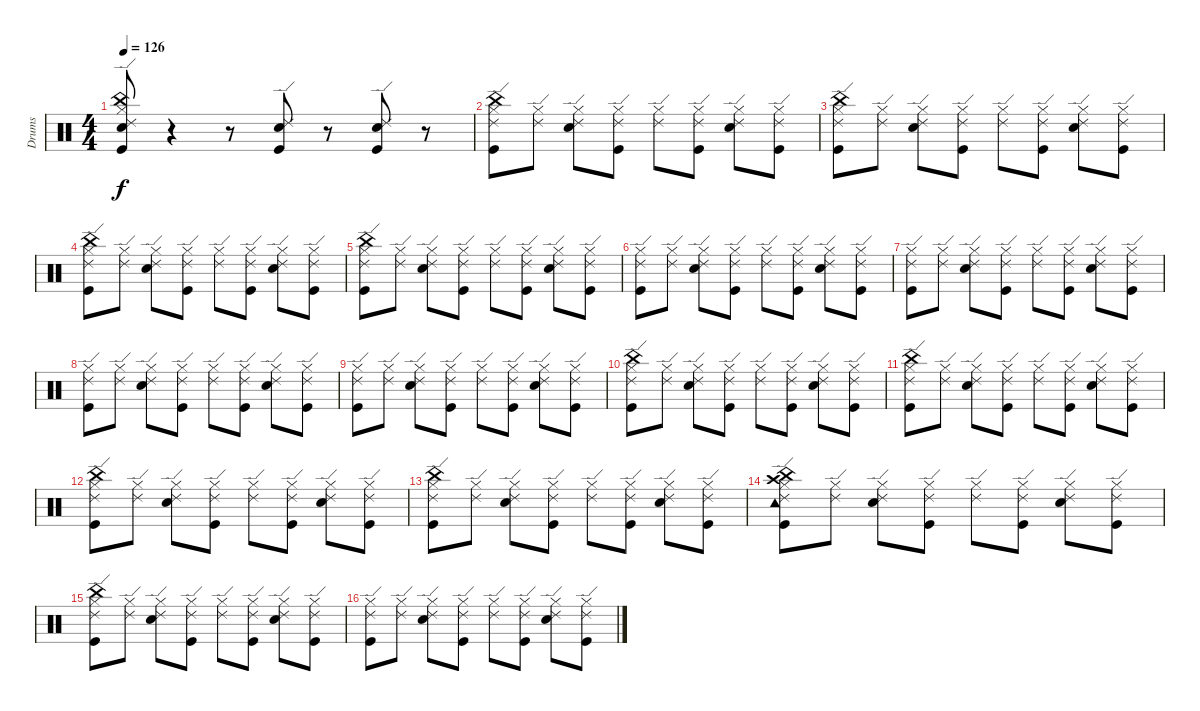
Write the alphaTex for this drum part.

\track ("Drums" "Drums") {instrument percussion}
\staff {score}
\articulation defaults
\ts (4 4)
\tempo 126
\clef neutral
\ks c
("Electric Snare (hit)" "Hi-Hat (closed)" "China (hit)" "Ride (edge) 2" "Kick (hit)").8{dy f} r.4 r.8 ("Ride (edge) 2" "Electric Snare (hit)" "Kick (hit)").8 r.8 ("Ride (edge) 2" "Kick (hit)" "Electric Snare (hit)").8 r.8 |
("Hi-Hat (closed)" "China (hit)" "Ride (edge) 2" "Kick (hit)").8 ("Hi-Hat (closed)" "Ride (edge) 2").8 ("Hi-Hat (closed)" "Ride (edge) 2" "Electric Snare (hit)").8 ("Hi-Hat (closed)" "Ride (edge) 2" "Kick (hit)").8 ("Hi-Hat (closed)" "Ride (edge) 2").8 ("Hi-Hat (closed)" "Ride (edge) 2" "Kick (hit)").8 ("Hi-Hat (closed)" "Ride (edge) 2" "Electric Snare (hit)").8 ("Hi-Hat (closed)" "Ride (edge) 2" "Kick (hit)").8 |
("Hi-Hat (closed)" "China (hit)" "Ride (edge) 2" "Kick (hit)").8 ("Hi-Hat (closed)" "Ride (edge) 2").8 ("Hi-Hat (closed)" "Ride (edge) 2" "Electric Snare (hit)").8 ("Hi-Hat (closed)" "Ride (edge) 2" "Kick (hit)").8 ("Hi-Hat (closed)" "Ride (edge) 2").8 ("Hi-Hat (closed)" "Ride (edge) 2" "Kick (hit)").8 ("Hi-Hat (closed)" "Ride (edge) 2" "Electric Snare (hit)").8 ("Hi-Hat (closed)" "Ride (edge) 2" "Kick (hit)").8 |
("Hi-Hat (closed)" "China (hit)" "Ride (edge) 2" "Kick (hit)").8 ("Hi-Hat (closed)" "Ride (edge) 2").8 ("Hi-Hat (closed)" "Ride (edge) 2" "Electric Snare (hit)").8 ("Hi-Hat (closed)" "Ride (edge) 2" "Kick (hit)").8 ("Hi-Hat (closed)" "Ride (edge) 2").8 ("Hi-Hat (closed)" "Ride (edge) 2" "Kick (hit)").8 ("Hi-Hat (closed)" "Ride (edge) 2" "Electric Snare (hit)").8 ("Hi-Hat (closed)" "Ride (edge) 2" "Kick (hit)").8 |
("Hi-Hat (closed)" "China (hit)" "Ride (edge) 2" "Kick (hit)").8 ("Hi-Hat (closed)" "Ride (edge) 2").8 ("Hi-Hat (closed)" "Ride (edge) 2" "Electric Snare (hit)").8 ("Hi-Hat (closed)" "Ride (edge) 2" "Kick (hit)").8 ("Hi-Hat (closed)" "Ride (edge) 2").8 ("Hi-Hat (closed)" "Ride (edge) 2" "Kick (hit)").8 ("Hi-Hat (closed)" "Ride (edge) 2" "Electric Snare (hit)").8 ("Hi-Hat (closed)" "Ride (edge) 2" "Kick (hit)").8 |
("Hi-Hat (closed)" "Ride (edge) 2" "Kick (hit)").8 ("Hi-Hat (closed)" "Ride (edge) 2").8 ("Hi-Hat (closed)" "Ride (edge) 2" "Electric Snare (hit)").8 ("Hi-Hat (closed)" "Ride (edge) 2" "Kick (hit)").8 ("Hi-Hat (closed)" "Ride (edge) 2").8 ("Hi-Hat (closed)" "Ride (edge) 2" "Kick (hit)").8 ("Hi-Hat (closed)" "Ride (edge) 2" "Electric Snare (hit)").8 ("Hi-Hat (closed)" "Ride (edge) 2" "Kick (hit)").8 |
("Hi-Hat (closed)" "Ride (edge) 2" "Kick (hit)").8 ("Hi-Hat (closed)" "Ride (edge) 2").8 ("Hi-Hat (closed)" "Ride (edge) 2" "Electric Snare (hit)").8 ("Hi-Hat (closed)" "Ride (edge) 2" "Kick (hit)").8 ("Hi-Hat (closed)" "Ride (edge) 2").8 ("Hi-Hat (closed)" "Ride (edge) 2" "Kick (hit)").8 ("Hi-Hat (closed)" "Ride (edge) 2" "Electric Snare (hit)").8 ("Hi-Hat (closed)" "Ride (edge) 2" "Kick (hit)").8 |
("Hi-Hat (closed)" "Ride (edge) 2" "Kick (hit)").8 ("Hi-Hat (closed)" "Ride (edge) 2").8 ("Hi-Hat (closed)" "Ride (edge) 2" "Electric Snare (hit)").8 ("Hi-Hat (closed)" "Ride (edge) 2" "Kick (hit)").8 ("Hi-Hat (closed)" "Ride (edge) 2").8 ("Hi-Hat (closed)" "Ride (edge) 2" "Kick (hit)").8 ("Hi-Hat (closed)" "Ride (edge) 2" "Electric Snare (hit)").8 ("Hi-Hat (closed)" "Ride (edge) 2" "Kick (hit)").8 |
("Hi-Hat (closed)" "Ride (edge) 2" "Kick (hit)").8 ("Hi-Hat (closed)" "Ride (edge) 2").8 ("Hi-Hat (closed)" "Ride (edge) 2" "Electric Snare (hit)").8 ("Hi-Hat (closed)" "Ride (edge) 2" "Kick (hit)").8 ("Hi-Hat (closed)" "Ride (edge) 2").8 ("Hi-Hat (closed)" "Ride (edge) 2" "Kick (hit)").8 ("Hi-Hat (closed)" "Ride (edge) 2" "Electric Snare (hit)").8 ("Hi-Hat (closed)" "Ride (edge) 2" "Kick (hit)").8 |
("China (hit)" "Hi-Hat (closed)" "Ride (edge) 2" "Kick (hit)").8 ("Hi-Hat (closed)" "Ride (edge) 2").8 ("Hi-Hat (closed)" "Ride (edge) 2" "Electric Snare (hit)").8 ("Hi-Hat (closed)" "Ride (edge) 2" "Kick (hit)").8 ("Hi-Hat (closed)" "Ride (edge) 2").8 ("Hi-Hat (closed)" "Ride (edge) 2" "Kick (hit)").8 ("Hi-Hat (closed)" "Ride (edge) 2" "Electric Snare (hit)").8 ("Hi-Hat (closed)" "Ride (edge) 2" "Kick (hit)").8 |
("Hi-Hat (closed)" "China (hit)" "Ride (edge) 2" "Kick (hit)").8 ("Hi-Hat (closed)" "Ride (edge) 2").8 ("Hi-Hat (closed)" "Ride (edge) 2" "Electric Snare (hit)").8 ("Hi-Hat (closed)" "Ride (edge) 2" "Kick (hit)").8 ("Hi-Hat (closed)" "Ride (edge) 2").8 ("Hi-Hat (closed)" "Ride (edge) 2" "Kick (hit)").8 ("Hi-Hat (closed)" "Ride (edge) 2" "Electric Snare (hit)").8 ("Hi-Hat (closed)" "Ride (edge) 2" "Kick (hit)").8 |
("Hi-Hat (closed)" "China (hit)" "Ride (edge) 2" "Kick (hit)").8 ("Hi-Hat (closed)" "Ride (edge) 2").8 ("Hi-Hat (closed)" "Ride (edge) 2" "Electric Snare (hit)").8 ("Hi-Hat (closed)" "Ride (edge) 2" "Kick (hit)").8 ("Hi-Hat (closed)" "Ride (edge) 2").8 ("Hi-Hat (closed)" "Ride (edge) 2" "Kick (hit)").8 ("Hi-Hat (closed)" "Ride (edge) 2" "Electric Snare (hit)").8 ("Hi-Hat (closed)" "Ride (edge) 2" "Kick (hit)").8 |
("Hi-Hat (closed)" "China (hit)" "Ride (edge) 2" "Kick (hit)").8 ("Hi-Hat (closed)" "Ride (edge) 2").8 ("Hi-Hat (closed)" "Ride (edge) 2" "Electric Snare (hit)").8 ("Hi-Hat (closed)" "Ride (edge) 2" "Kick (hit)").8 ("Hi-Hat (closed)" "Ride (edge) 2").8 ("Hi-Hat (closed)" "Ride (edge) 2" "Kick (hit)").8 ("Hi-Hat (closed)" "Ride (edge) 2" "Electric Snare (hit)").8 ("Hi-Hat (closed)" "Ride (edge) 2" "Kick (hit)").8 |
("Crash high (hit)" "Tambourine (hit)" "China (hit)" "Hi-Hat (closed)" "Ride (edge) 2" "Kick (hit)").8 ("Hi-Hat (closed)" "Ride (edge) 2").8 ("Hi-Hat (closed)" "Ride (edge) 2" "Electric Snare (hit)").8 ("Hi-Hat (closed)" "Ride (edge) 2" "Kick (hit)").8 ("Hi-Hat (closed)" "Ride (edge) 2").8 ("Hi-Hat (closed)" "Ride (edge) 2" "Kick (hit)").8 ("Hi-Hat (closed)" "Ride (edge) 2" "Electric Snare (hit)").8 ("Hi-Hat (closed)" "Ride (edge) 2" "Kick (hit)").8 |
("Hi-Hat (closed)" "China (hit)" "Ride (edge) 2" "Kick (hit)").8 ("Hi-Hat (closed)" "Ride (edge) 2").8 ("Hi-Hat (closed)" "Ride (edge) 2" "Electric Snare (hit)").8 ("Hi-Hat (closed)" "Ride (edge) 2" "Kick (hit)").8 ("Hi-Hat (closed)" "Ride (edge) 2").8 ("Hi-Hat (closed)" "Ride (edge) 2" "Kick (hit)").8 ("Hi-Hat (closed)" "Ride (edge) 2" "Electric Snare (hit)").8 ("Hi-Hat (closed)" "Ride (edge) 2" "Kick (hit)").8 |
("Hi-Hat (closed)" "Ride (edge) 2" "Kick (hit)").8 ("Hi-Hat (closed)" "Ride (edge) 2").8 ("Hi-Hat (closed)" "Ride (edge) 2" "Electric Snare (hit)").8 ("Hi-Hat (closed)" "Ride (edge) 2" "Kick (hit)").8 ("Hi-Hat (closed)" "Ride (edge) 2").8 ("Hi-Hat (closed)" "Ride (edge) 2" "Kick (hit)").8 ("Hi-Hat (closed)" "Ride (edge) 2" "Electric Snare (hit)").8 ("Hi-Hat (closed)" "Ride (edge) 2" "Kick (hit)").8
